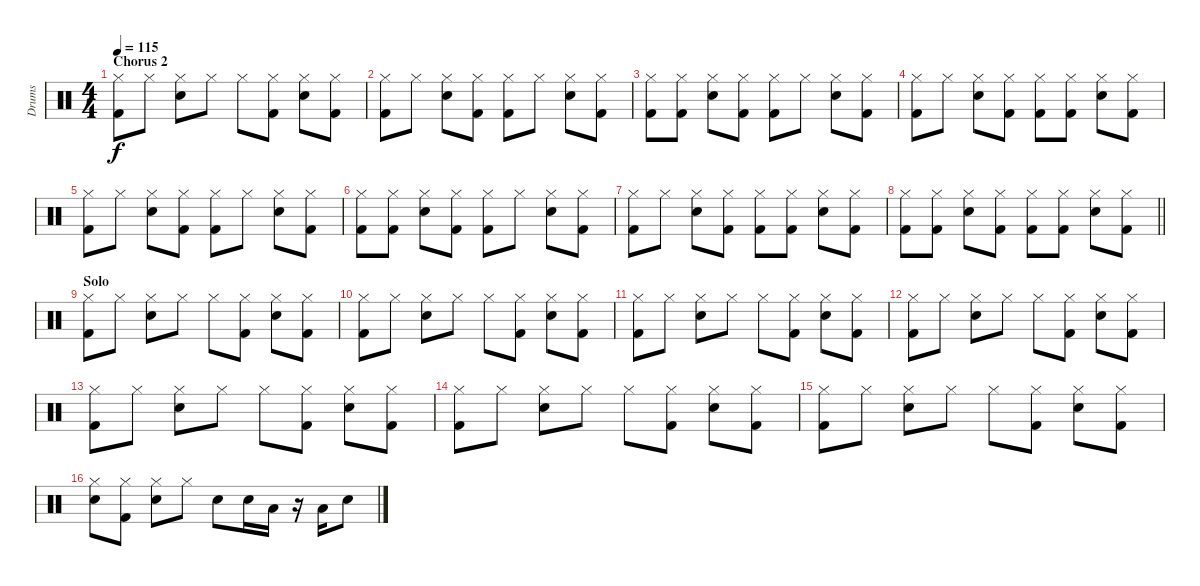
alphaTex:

\track ("Drums" "Drums") {instrument percussion}
\staff {score}
\articulation defaults
\ts (4 4)
\section ("" "Chorus 2")
\tempo 115
\clef neutral
\ks c
("Hi-Hat (closed)" "Kick (hit) 2").8{dy f} "Hi-Hat (closed)".8 ("Hi-Hat (closed)" "Snare (hit) 2").8 "Hi-Hat (closed)".8 "Hi-Hat (closed)".8 ("Hi-Hat (closed)" "Kick (hit) 2").8 ("Hi-Hat (closed)" "Snare (hit) 2").8 ("Hi-Hat (closed)" "Kick (hit) 2").8 |
("Hi-Hat (closed)" "Kick (hit) 2").8 "Hi-Hat (closed)".8 ("Hi-Hat (closed)" "Snare (hit) 2").8 ("Hi-Hat (closed)" "Kick (hit) 2").8 ("Hi-Hat (closed)" "Kick (hit) 2").8 "Hi-Hat (closed)".8 ("Hi-Hat (closed)" "Snare (hit) 2").8 ("Hi-Hat (closed)" "Kick (hit) 2").8 |
("Hi-Hat (closed)" "Kick (hit) 2").8 ("Hi-Hat (closed)" "Kick (hit) 2").8 ("Hi-Hat (closed)" "Snare (hit) 2").8 ("Hi-Hat (closed)" "Kick (hit) 2").8 ("Hi-Hat (closed)" "Kick (hit) 2").8 "Hi-Hat (closed)".8 ("Hi-Hat (closed)" "Snare (hit) 2").8 ("Hi-Hat (closed)" "Kick (hit) 2").8 |
("Hi-Hat (closed)" "Kick (hit) 2").8 "Hi-Hat (closed)".8 ("Hi-Hat (closed)" "Snare (hit) 2").8 ("Hi-Hat (closed)" "Kick (hit) 2").8 ("Hi-Hat (closed)" "Kick (hit) 2").8 ("Hi-Hat (closed)" "Kick (hit) 2").8 ("Hi-Hat (closed)" "Snare (hit) 2").8 ("Hi-Hat (closed)" "Kick (hit) 2").8 |
("Hi-Hat (closed)" "Kick (hit) 2").8 "Hi-Hat (closed)".8 ("Hi-Hat (closed)" "Snare (hit) 2").8 ("Hi-Hat (closed)" "Kick (hit) 2").8 ("Hi-Hat (closed)" "Kick (hit) 2").8 "Hi-Hat (closed)".8 ("Hi-Hat (closed)" "Snare (hit) 2").8 ("Hi-Hat (closed)" "Kick (hit) 2").8 |
("Hi-Hat (closed)" "Kick (hit) 2").8 ("Hi-Hat (closed)" "Kick (hit) 2").8 ("Hi-Hat (closed)" "Snare (hit) 2").8 ("Hi-Hat (closed)" "Kick (hit) 2").8 ("Hi-Hat (closed)" "Kick (hit) 2").8 "Hi-Hat (closed)".8 ("Hi-Hat (closed)" "Snare (hit) 2").8 ("Hi-Hat (closed)" "Kick (hit) 2").8 |
("Hi-Hat (closed)" "Kick (hit) 2").8 "Hi-Hat (closed)".8 ("Hi-Hat (closed)" "Snare (hit) 2").8 ("Hi-Hat (closed)" "Kick (hit) 2").8 ("Hi-Hat (closed)" "Kick (hit) 2").8 ("Hi-Hat (closed)" "Kick (hit) 2").8 ("Hi-Hat (closed)" "Snare (hit) 2").8 ("Hi-Hat (closed)" "Kick (hit) 2").8 |
\barLineRight lightlight
("Hi-Hat (closed)" "Kick (hit) 2").8 ("Hi-Hat (closed)" "Kick (hit) 2").8 ("Hi-Hat (closed)" "Snare (hit) 2").8 ("Hi-Hat (closed)" "Kick (hit) 2").8 ("Hi-Hat (closed)" "Kick (hit) 2").8 ("Hi-Hat (closed)" "Kick (hit) 2").8 ("Hi-Hat (closed)" "Snare (hit) 2").8 ("Hi-Hat (closed)" "Kick (hit) 2").8 |
\section ("" "Solo")
("Hi-Hat (closed)" "Kick (hit) 2").8 "Hi-Hat (closed)".8 ("Hi-Hat (closed)" "Snare (hit) 2").8 "Hi-Hat (closed)".8 "Hi-Hat (closed)".8 ("Hi-Hat (closed)" "Kick (hit) 2").8 ("Hi-Hat (closed)" "Snare (hit) 2").8 ("Hi-Hat (closed)" "Kick (hit) 2").8 |
("Hi-Hat (closed)" "Kick (hit) 2").8 "Hi-Hat (closed)".8 ("Hi-Hat (closed)" "Snare (hit) 2").8 "Hi-Hat (closed)".8 "Hi-Hat (closed)".8 ("Hi-Hat (closed)" "Kick (hit) 2").8 ("Hi-Hat (closed)" "Snare (hit) 2").8 ("Hi-Hat (closed)" "Kick (hit) 2").8 |
("Hi-Hat (closed)" "Kick (hit) 2").8 "Hi-Hat (closed)".8 ("Hi-Hat (closed)" "Snare (hit) 2").8 "Hi-Hat (closed)".8 "Hi-Hat (closed)".8 ("Hi-Hat (closed)" "Kick (hit) 2").8 ("Hi-Hat (closed)" "Snare (hit) 2").8 ("Hi-Hat (closed)" "Kick (hit) 2").8 |
("Hi-Hat (closed)" "Kick (hit) 2").8 "Hi-Hat (closed)".8 ("Hi-Hat (closed)" "Snare (hit) 2").8 "Hi-Hat (closed)".8 "Hi-Hat (closed)".8 ("Hi-Hat (closed)" "Kick (hit) 2").8 ("Hi-Hat (closed)" "Snare (hit) 2").8 ("Hi-Hat (closed)" "Kick (hit) 2").8 |
("Hi-Hat (closed)" "Kick (hit) 2").8 "Hi-Hat (closed)".8 ("Hi-Hat (closed)" "Snare (hit) 2").8 "Hi-Hat (closed)".8 "Hi-Hat (closed)".8 ("Hi-Hat (closed)" "Kick (hit) 2").8 ("Hi-Hat (closed)" "Snare (hit) 2").8 ("Hi-Hat (closed)" "Kick (hit) 2").8 |
("Hi-Hat (closed)" "Kick (hit) 2").8 "Hi-Hat (closed)".8 ("Hi-Hat (closed)" "Snare (hit) 2").8 "Hi-Hat (closed)".8 "Hi-Hat (closed)".8 ("Hi-Hat (closed)" "Kick (hit) 2").8 ("Hi-Hat (closed)" "Snare (hit) 2").8 ("Hi-Hat (closed)" "Kick (hit) 2").8 |
("Hi-Hat (closed)" "Kick (hit) 2").8 "Hi-Hat (closed)".8 ("Hi-Hat (closed)" "Snare (hit) 2").8 "Hi-Hat (closed)".8 "Hi-Hat (closed)".8 ("Hi-Hat (closed)" "Kick (hit) 2").8 ("Hi-Hat (closed)" "Snare (hit) 2").8 ("Hi-Hat (closed)" "Kick (hit) 2").8 |
("Hi-Hat (closed)" "Snare (hit) 2").8 ("Hi-Hat (closed)" "Kick (hit) 2").8 ("Hi-Hat (closed)" "Snare (hit) 2").8 "Hi-Hat (closed)".8 "Snare (hit) 2".8 "Snare (hit) 2".16 "Low Tom (hit)".16 r.16 "Low Tom (hit)".16 "Snare (hit) 2".8
